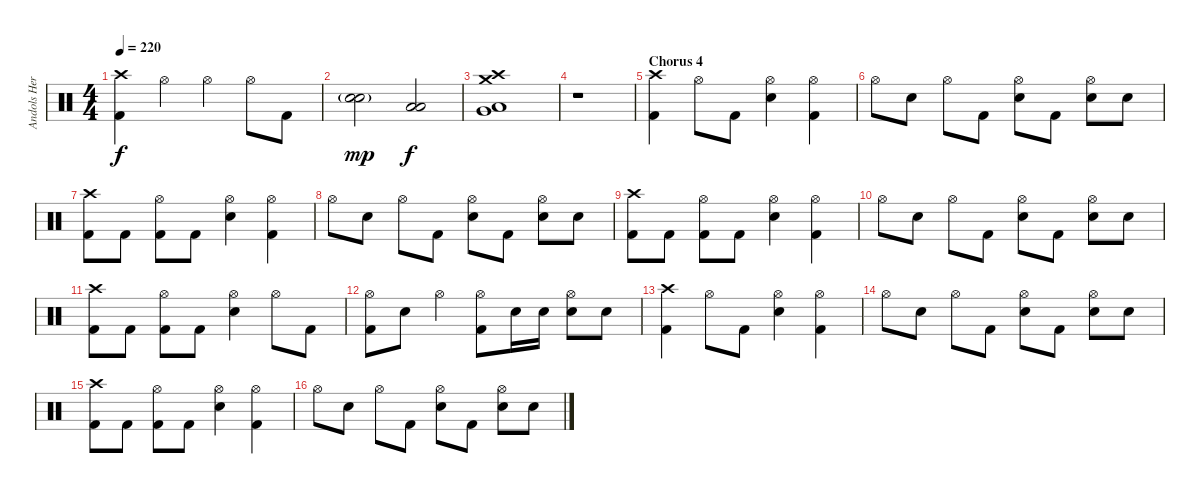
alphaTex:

\track ("Andols Herrick - Drums" "Andols Her") {instrument percussion}
\staff {score}
\articulation defaults
\ts (4 4)
\tempo 220
\clef neutral
\ks c
("Crash high (hit)" "Kick (hit) 2").4{dy f} "Hi-Hat (open)".4 "Hi-Hat (open)".4 "Hi-Hat (open)".8 "Kick (hit) 2".8 |
("Snare (hit) 2"{g} "Snare (hit) 2").2{dy mp} ("Low Tom (hit)" "Low Floor Tom (hit)").2{dy f} |
("Crash medium (hit)" "Crash high (hit)" "Very Low Tom (hit)" "Low Floor Tom (hit)").1 |
r.1 |
\section ("" "Chorus 4")
("Crash high (hit)" "Kick (hit) 2").4 "Hi-Hat (open)".8 "Kick (hit) 2".8 ("Hi-Hat (open)" "Snare (hit) 2").4 ("Hi-Hat (open)" "Kick (hit) 2").4 |
"Hi-Hat (open)".8 "Snare (hit) 2".8 "Hi-Hat (open)".8 "Kick (hit) 2".8 ("Hi-Hat (open)" "Snare (hit) 2").8 "Kick (hit) 2".8 ("Hi-Hat (open)" "Snare (hit) 2").8 "Snare (hit) 2".8 |
("Crash high (hit)" "Kick (hit) 2").8 "Kick (hit) 2".8 ("Hi-Hat (open)" "Kick (hit) 2").8 "Kick (hit) 2".8 ("Hi-Hat (open)" "Snare (hit) 2").4 ("Hi-Hat (open)" "Kick (hit) 2").4 |
"Hi-Hat (open)".8 "Snare (hit) 2".8 "Hi-Hat (open)".8 "Kick (hit) 2".8 ("Hi-Hat (open)" "Snare (hit) 2").8 "Kick (hit) 2".8 ("Hi-Hat (open)" "Snare (hit) 2").8 "Snare (hit) 2".8 |
("Crash high (hit)" "Kick (hit) 2").8 "Kick (hit) 2".8 ("Hi-Hat (open)" "Kick (hit) 2").8 "Kick (hit) 2".8 ("Hi-Hat (open)" "Snare (hit) 2").4 ("Hi-Hat (open)" "Kick (hit) 2").4 |
"Hi-Hat (open)".8 "Snare (hit) 2".8 "Hi-Hat (open)".8 "Kick (hit) 2".8 ("Hi-Hat (open)" "Snare (hit) 2").8 "Kick (hit) 2".8 ("Hi-Hat (open)" "Snare (hit) 2").8 "Snare (hit) 2".8 |
("Crash high (hit)" "Kick (hit) 2").8 "Kick (hit) 2".8 ("Hi-Hat (open)" "Kick (hit) 2").8 "Kick (hit) 2".8 ("Hi-Hat (open)" "Snare (hit) 2").4 "Hi-Hat (open)".8 "Kick (hit) 2".8 |
("Hi-Hat (open)" "Kick (hit) 2").8 "Snare (hit) 2".8 "Hi-Hat (open)".4 ("Hi-Hat (open)" "Kick (hit) 2").8 "Snare (hit) 2".16 "Snare (hit) 2".16 ("Hi-Hat (open)" "Snare (hit) 2").8 "Snare (hit) 2".8 |
("Crash high (hit)" "Kick (hit) 2").4 "Hi-Hat (open)".8 "Kick (hit) 2".8 ("Hi-Hat (open)" "Snare (hit) 2").4 ("Hi-Hat (open)" "Kick (hit) 2").4 |
"Hi-Hat (open)".8 "Snare (hit) 2".8 "Hi-Hat (open)".8 "Kick (hit) 2".8 ("Hi-Hat (open)" "Snare (hit) 2").8 "Kick (hit) 2".8 ("Hi-Hat (open)" "Snare (hit) 2").8 "Snare (hit) 2".8 |
("Crash high (hit)" "Kick (hit) 2").8 "Kick (hit) 2".8 ("Hi-Hat (open)" "Kick (hit) 2").8 "Kick (hit) 2".8 ("Hi-Hat (open)" "Snare (hit) 2").4 ("Hi-Hat (open)" "Kick (hit) 2").4 |
"Hi-Hat (open)".8 "Snare (hit) 2".8 "Hi-Hat (open)".8 "Kick (hit) 2".8 ("Hi-Hat (open)" "Snare (hit) 2").8 "Kick (hit) 2".8 ("Hi-Hat (open)" "Snare (hit) 2").8 "Snare (hit) 2".8
